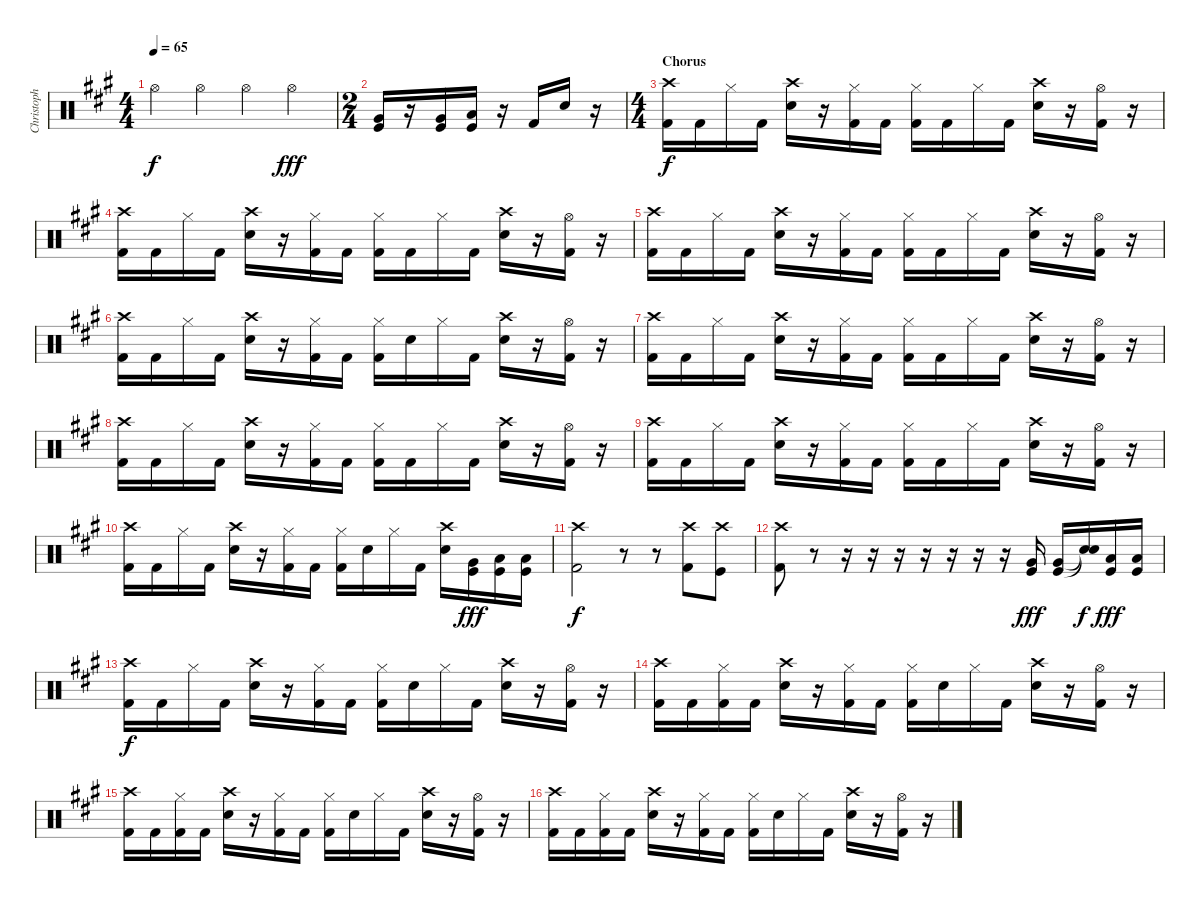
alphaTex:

\track ("Christoph Doom Schneider - Drums" "Christoph ") {instrument percussion}
\staff {score}
\articulation defaults
\ts (4 4)
\tempo 65
\clef neutral
\ks a "Hi-Hat (open)".4{dy f} "Hi-Hat (open)".4 "Hi-Hat (open)".4 "Hi-Hat (open)".4{dy fff}
|
\ts (2 4)
("Very Low Tom (hit)" "Kick (hit)").16 r.16 ("Very Low Tom (hit)" "Kick (hit)").16 ("Low Floor Tom (hit)" "Kick (hit)").16 r.16 "Kick (hit) 2".16 "Electric Snare (hit)".16 r.16 |
\ts (4 4)
\section ("" "Chorus")
("Crash high (hit)" "Kick (hit) 2").16{dy f balance 8} "Kick (hit) 2".16 "Hi-Hat (closed)".16 "Kick (hit) 2".16 ("Crash high (hit)" "Electric Snare (hit)").16 r.16 ("Hi-Hat (closed)" "Kick (hit) 2").16 "Kick (hit) 2".16 ("Hi-Hat (closed)" "Kick (hit) 2").16 "Kick (hit) 2".16 "Hi-Hat (closed)".16 "Kick (hit) 2".16 ("Crash high (hit)" "Electric Snare (hit)").16 r.16 ("Hi-Hat (open)" "Kick (hit) 2").16 r.16 |
("Crash high (hit)" "Kick (hit) 2").16 "Kick (hit) 2".16 "Hi-Hat (closed)".16 "Kick (hit) 2".16 ("Crash high (hit)" "Electric Snare (hit)").16 r.16 ("Hi-Hat (closed)" "Kick (hit) 2").16 "Kick (hit) 2".16 ("Hi-Hat (closed)" "Kick (hit) 2").16 "Kick (hit) 2".16 "Hi-Hat (closed)".16 "Kick (hit) 2".16 ("Crash high (hit)" "Electric Snare (hit)").16 r.16 ("Hi-Hat (open)" "Kick (hit) 2").16 r.16 |
("Crash high (hit)" "Kick (hit) 2").16 "Kick (hit) 2".16 "Hi-Hat (closed)".16 "Kick (hit) 2".16 ("Crash high (hit)" "Electric Snare (hit)").16 r.16 ("Hi-Hat (closed)" "Kick (hit) 2").16 "Kick (hit) 2".16 ("Hi-Hat (closed)" "Kick (hit) 2").16 "Kick (hit) 2".16 "Hi-Hat (closed)".16 "Kick (hit) 2".16 ("Crash high (hit)" "Electric Snare (hit)").16 r.16 ("Hi-Hat (open)" "Kick (hit) 2").16 r.16 |
("Crash high (hit)" "Kick (hit) 2").16 "Kick (hit) 2".16 "Hi-Hat (closed)".16 "Kick (hit) 2".16 ("Crash high (hit)" "Electric Snare (hit)").16 r.16 ("Hi-Hat (closed)" "Kick (hit) 2").16 "Kick (hit) 2".16 ("Hi-Hat (closed)" "Kick (hit) 2").16 "Electric Snare (hit)".16 "Hi-Hat (closed)".16 "Kick (hit) 2"{tr (36 64)}.16 ("Crash high (hit)" "Electric Snare (hit)").16 r.16 ("Hi-Hat (open)" "Kick (hit) 2").16 r.16 |
("Crash high (hit)" "Kick (hit) 2").16{balance 8} "Kick (hit) 2".16 "Hi-Hat (closed)".16 "Kick (hit) 2".16 ("Crash high (hit)" "Electric Snare (hit)").16 r.16 ("Hi-Hat (closed)" "Kick (hit) 2").16 "Kick (hit) 2".16 ("Hi-Hat (closed)" "Kick (hit) 2").16 "Kick (hit) 2".16 "Hi-Hat (closed)".16 "Kick (hit) 2".16 ("Crash high (hit)" "Electric Snare (hit)").16 r.16 ("Hi-Hat (open)" "Kick (hit) 2").16 r.16 |
("Crash high (hit)" "Kick (hit) 2").16 "Kick (hit) 2".16 "Hi-Hat (closed)".16 "Kick (hit) 2".16 ("Crash high (hit)" "Electric Snare (hit)").16 r.16 ("Hi-Hat (closed)" "Kick (hit) 2").16 "Kick (hit) 2".16 ("Hi-Hat (closed)" "Kick (hit) 2").16 "Kick (hit) 2".16 "Hi-Hat (closed)".16 "Kick (hit) 2".16 ("Crash high (hit)" "Electric Snare (hit)").16 r.16 ("Hi-Hat (open)" "Kick (hit) 2").16 r.16 |
("Crash high (hit)" "Kick (hit) 2").16 "Kick (hit) 2".16 "Hi-Hat (closed)".16 "Kick (hit) 2".16 ("Crash high (hit)" "Electric Snare (hit)").16 r.16 ("Hi-Hat (closed)" "Kick (hit) 2").16 "Kick (hit) 2".16 ("Hi-Hat (closed)" "Kick (hit) 2").16 "Kick (hit) 2".16 "Hi-Hat (closed)".16 "Kick (hit) 2".16 ("Crash high (hit)" "Electric Snare (hit)").16 r.16 ("Hi-Hat (open)" "Kick (hit) 2").16 r.16 |
("Crash high (hit)" "Kick (hit) 2").16 "Kick (hit) 2".16 "Hi-Hat (closed)".16 "Kick (hit) 2".16 ("Crash high (hit)" "Electric Snare (hit)").16 r.16 ("Hi-Hat (closed)" "Kick (hit) 2").16 "Kick (hit) 2".16 ("Hi-Hat (closed)" "Kick (hit) 2").16 "Electric Snare (hit)".16 "Hi-Hat (closed)".16 "Kick (hit) 2".16 ("Crash high (hit)" "Electric Snare (hit)").16 ("Very Low Tom (hit)" "Kick (hit)").16{dy fff} ("Low Floor Tom (hit)" "Kick (hit)").16 ("Low Floor Tom (hit)" "Kick (hit)").16 |
("Crash high (hit)" "Kick (hit) 2").2{dy f} r.8 r.8 ("Crash high (hit)" "Kick (hit) 2").8 ("Crash high (hit)" "Kick (hit)").8 |
("Crash high (hit)" "Kick (hit) 2").8 r.8 r.16 r.16 r.16 r.16 r.16 r.16 r.16 ("Very Low Tom (hit)"{tr (43 64)} "Kick (hit)"{tr (35 64)}).16{dy fff} ("Very Low Tom (hit)"{tr (43 16)} "Kick (hit)"{tr (35 16)}).16 ("Snare (hit)"{t} "Snare (hit)"{t}).16{dy f} ("Low Floor Tom (hit)" "Kick (hit)").16{dy fff} ("Low Floor Tom (hit)" "Kick (hit)").16 |
("Crash high (hit)" "Kick (hit) 2").16{dy f} "Kick (hit) 2".16 "Hi-Hat (closed)".16 "Kick (hit) 2".16 ("Crash high (hit)" "Electric Snare (hit)").16 r.16 ("Hi-Hat (closed)" "Kick (hit) 2").16 "Kick (hit) 2".16 ("Hi-Hat (closed)" "Kick (hit) 2").16 "Electric Snare (hit)".16 "Hi-Hat (closed)".16 "Kick (hit) 2"{tr (36 64)}.16 ("Crash high (hit)" "Electric Snare (hit)").16 r.16 ("Hi-Hat (open)" "Kick (hit) 2").16 r.16 |
("Crash high (hit)" "Kick (hit) 2").16 "Kick (hit) 2".16 ("Hi-Hat (closed)" "Kick (hit) 2").16 "Kick (hit) 2".16 ("Crash high (hit)" "Electric Snare (hit)").16 r.16 ("Hi-Hat (closed)" "Kick (hit) 2").16 "Kick (hit) 2".16 ("Hi-Hat (closed)" "Kick (hit) 2").16 "Electric Snare (hit)".16 "Hi-Hat (closed)".16 "Kick (hit) 2".16 ("Crash high (hit)" "Electric Snare (hit)").16 r.16 ("Hi-Hat (open)" "Kick (hit) 2").16 r.16 |
("Crash high (hit)" "Kick (hit) 2").16 "Kick (hit) 2".16 ("Hi-Hat (closed)" "Kick (hit) 2").16 "Kick (hit) 2".16 ("Crash high (hit)" "Electric Snare (hit)").16 r.16 ("Hi-Hat (closed)" "Kick (hit) 2").16 "Kick (hit) 2".16 ("Hi-Hat (closed)" "Kick (hit) 2").16 "Electric Snare (hit)".16 "Hi-Hat (closed)".16 "Kick (hit) 2".16 ("Crash high (hit)" "Electric Snare (hit)").16 r.16 ("Hi-Hat (open)" "Kick (hit) 2").16 r.16 |
("Crash high (hit)" "Kick (hit) 2").16 "Kick (hit) 2".16 ("Hi-Hat (closed)" "Kick (hit) 2").16 "Kick (hit) 2".16 ("Crash high (hit)" "Electric Snare (hit)").16 r.16 ("Hi-Hat (closed)" "Kick (hit) 2").16 "Kick (hit) 2".16 ("Hi-Hat (closed)" "Kick (hit) 2").16 "Electric Snare (hit)".16 "Hi-Hat (closed)".16 "Kick (hit) 2".16 ("Crash high (hit)" "Electric Snare (hit)").16 r.16 ("Hi-Hat (open)" "Kick (hit) 2").16 r.16
